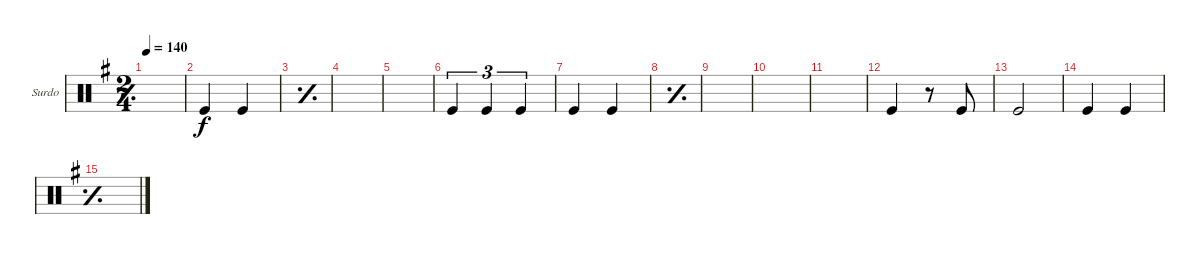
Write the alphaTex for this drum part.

\defaultSystemsLayout 4
\bracketExtendMode groupsimilarinstruments
\firstSystemTrackNameOrientation horizontal
\otherSystemsTrackNameOrientation horizontal
\track ("Surdo" "Surdo") {instrument percussion}
\staff {score}
\articulation defaults
\ts (2 4)
\tempo 140
\clef neutral
\simile simple
\ks g
|
\simile none "Kick (hit)".4 "Kick (hit)".4
|
\simile simple
|
|
|
\simile none "Kick (hit)".4{tu (3 2)} "Kick (hit)".4{tu (3 2)} "Kick (hit)".4{tu (3 2)}
|
"Kick (hit)".4 "Kick (hit)".4 |
\simile simple
|
|
|
|
\simile none "Kick (hit)".4
r.8 "Kick (hit)".8 |
"Kick (hit)".2 |
"Kick (hit)".4 "Kick (hit)".4 |
\simile simple
